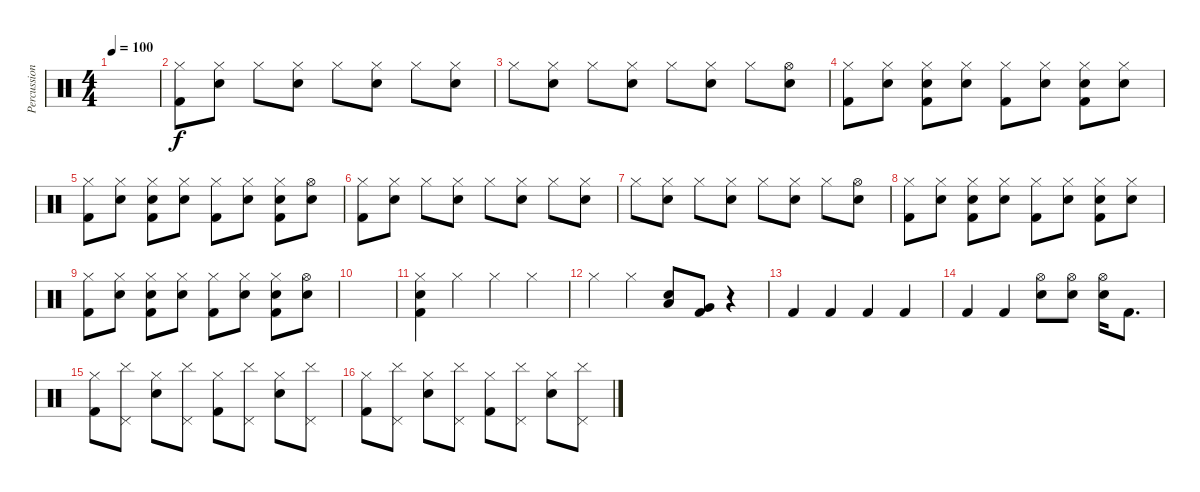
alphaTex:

\track ("Percussion" "Percussion") {solo instrument percussion}
\staff {score}
\articulation defaults
\ts (4 4)
\tempo 100
\clef neutral
\ks c
|
("Hi-Hat (closed)" "Kick (hit) 2").8 ("Hand Clap (hit)" "Hi-Hat (closed)").8 "Hi-Hat (closed)".8 ("Hand Clap (hit)" "Hi-Hat (closed)").8 "Hi-Hat (closed)".8 ("Hand Clap (hit)" "Hi-Hat (closed)").8 "Hi-Hat (closed)".8 ("Hand Clap (hit)" "Hi-Hat (closed)").8 |
"Hi-Hat (closed)".8 ("Hand Clap (hit)" "Hi-Hat (closed)").8 "Hi-Hat (closed)".8 ("Hand Clap (hit)" "Hi-Hat (closed)").8 "Hi-Hat (closed)".8 ("Hand Clap (hit)" "Hi-Hat (closed)").8 "Hi-Hat (closed)".8 ("Hi-Hat (open)" "Snare (hit) 2").8 |
("Hi-Hat (closed)" "Kick (hit) 2").8 ("Hi-Hat (closed)" "Hand Clap (hit)").8 ("Hi-Hat (closed)" "Snare (hit) 2" "Kick (hit) 2").8 ("Hi-Hat (closed)" "Hand Clap (hit)").8 ("Hi-Hat (closed)" "Kick (hit) 2").8 ("Hi-Hat (closed)" "Hand Clap (hit)").8 ("Hi-Hat (closed)" "Snare (hit) 2" "Kick (hit) 2").8 ("Hi-Hat (closed)" "Hand Clap (hit)").8 |
("Hi-Hat (closed)" "Kick (hit) 2").8 ("Hi-Hat (closed)" "Hand Clap (hit)").8 ("Hi-Hat (closed)" "Snare (hit) 2" "Kick (hit) 2").8 ("Hi-Hat (closed)" "Hand Clap (hit)").8 ("Hi-Hat (closed)" "Kick (hit) 2").8 ("Hi-Hat (closed)" "Hand Clap (hit)").8 ("Hi-Hat (closed)" "Snare (hit) 2" "Kick (hit) 2").8 ("Hi-Hat (open)" "Hand Clap (hit)").8 |
("Hi-Hat (closed)" "Kick (hit) 2").8 ("Hand Clap (hit)" "Hi-Hat (closed)").8 "Hi-Hat (closed)".8 ("Hand Clap (hit)" "Hi-Hat (closed)").8 "Hi-Hat (closed)".8 ("Hand Clap (hit)" "Hi-Hat (closed)").8 "Hi-Hat (closed)".8 ("Hand Clap (hit)" "Hi-Hat (closed)").8 |
"Hi-Hat (closed)".8 ("Hand Clap (hit)" "Hi-Hat (closed)").8 "Hi-Hat (closed)".8 ("Hand Clap (hit)" "Hi-Hat (closed)").8 "Hi-Hat (closed)".8 ("Hand Clap (hit)" "Hi-Hat (closed)").8 "Hi-Hat (closed)".8 ("Hi-Hat (open)" "Snare (hit) 2").8 |
("Hi-Hat (closed)" "Kick (hit) 2").8 ("Hi-Hat (closed)" "Hand Clap (hit)").8 ("Hi-Hat (closed)" "Snare (hit) 2" "Kick (hit) 2").8 ("Hi-Hat (closed)" "Hand Clap (hit)").8 ("Hi-Hat (closed)" "Kick (hit) 2").8 ("Hi-Hat (closed)" "Hand Clap (hit)").8 ("Hi-Hat (closed)" "Snare (hit) 2" "Kick (hit) 2").8 ("Hi-Hat (closed)" "Hand Clap (hit)").8 |
("Hi-Hat (closed)" "Kick (hit) 2").8 ("Hi-Hat (closed)" "Hand Clap (hit)").8 ("Hi-Hat (closed)" "Snare (hit) 2" "Kick (hit) 2").8 ("Hi-Hat (closed)" "Hand Clap (hit)").8 ("Hi-Hat (closed)" "Kick (hit) 2").8 ("Hi-Hat (closed)" "Hand Clap (hit)").8 ("Hi-Hat (closed)" "Snare (hit) 2" "Kick (hit) 2").8 ("Hi-Hat (open)" "Hand Clap (hit)").8 |
|
("Hi-Hat (closed)" "Snare (hit) 2" "Kick (hit) 2").4 "Hi-Hat (closed)".4 "Hi-Hat (closed)".4 "Hi-Hat (closed)".4 |
"Hi-Hat (closed)".4 "Hi-Hat (closed)".4 ("Low Tom (hit)" "Snare (hit) 2").8 ("Very Low Tom (hit)" "Kick (hit) 2").8 r.4 |
"Kick (hit) 2".4 "Kick (hit) 2".4 "Kick (hit) 2".4 "Kick (hit) 2".4 |
"Kick (hit) 2".4 "Kick (hit) 2".4 ("Hi-Hat (open)" "Snare (hit) 2").8 ("Hi-Hat (open)" "Snare (hit) 2").8 ("Hi-Hat (open)" "Snare (hit) 2").16 "Kick (hit) 2".8{d} |
("Hi-Hat (closed)" "Kick (hit) 2").8 ("Pedal Hi-Hat (hit)" "Cymbal (hit)").8 ("Hi-Hat (closed)" "Snare (hit) 2").8 ("Pedal Hi-Hat (hit)" "Cymbal (hit)").8 ("Hi-Hat (closed)" "Kick (hit) 2").8 ("Pedal Hi-Hat (hit)" "Cymbal (hit)").8 ("Hi-Hat (closed)" "Snare (hit) 2").8 ("Pedal Hi-Hat (hit)" "Cymbal (hit)").8 |
("Hi-Hat (closed)" "Kick (hit) 2").8 ("Pedal Hi-Hat (hit)" "Cymbal (hit)").8 ("Hi-Hat (closed)" "Snare (hit) 2").8 ("Pedal Hi-Hat (hit)" "Cymbal (hit)").8 ("Hi-Hat (closed)" "Kick (hit) 2").8 ("Pedal Hi-Hat (hit)" "Cymbal (hit)").8 ("Hi-Hat (closed)" "Snare (hit) 2").8 ("Pedal Hi-Hat (hit)" "Cymbal (hit)").8
